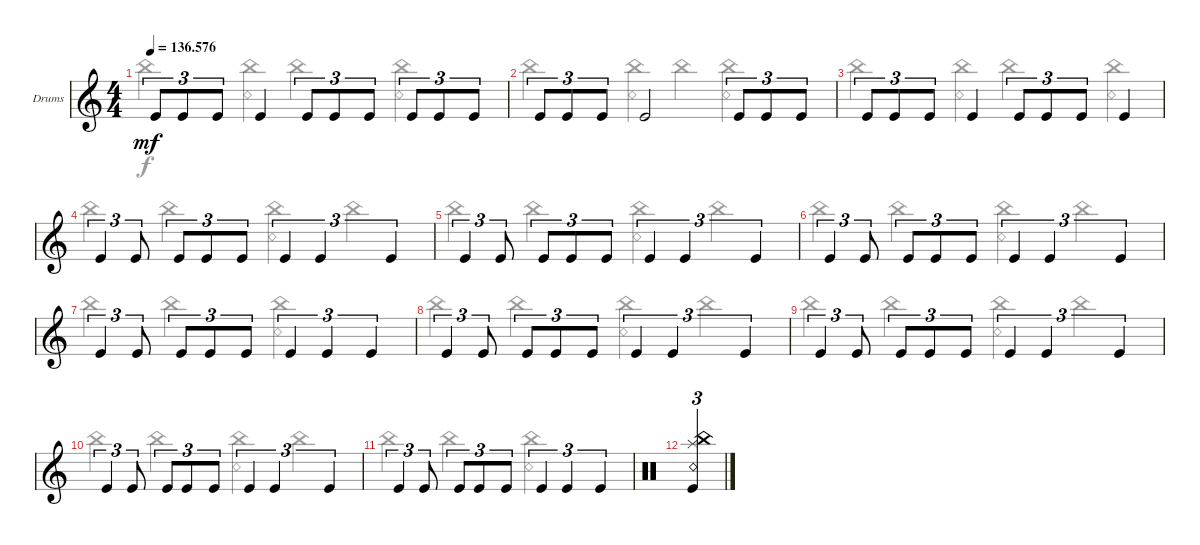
\bracketExtendMode groupsimilarinstruments
\firstSystemTrackNameOrientation horizontal
\otherSystemsTrackNameOrientation horizontal
\track ("Drumkit" "Drums") {instrument percussion}
\staff {score}
\articulation defaults
\voice
\ts (4 4)
\tempo
136.576
\accidentals auto
\clef g2
\ottava regular
\simile none
\ks c "Kick (hit)".8{tu (3 2) dy mf} "Kick (hit)".8{tu (3 2)} "Kick (hit)".8{tu (3 2)} "Kick (hit)".4 "Kick (hit)".8{tu (3 2)} "Kick (hit)".8{tu (3 2)} "Kick (hit)".8{tu (3 2)} "Kick (hit)".8{tu (3 2)} "Kick (hit)".8{tu (3 2)} "Kick (hit)".8{tu (3 2)}
|
"Kick (hit)".8{tu (3 2)} "Kick (hit)".8{tu (3 2)} "Kick (hit)".8{tu (3 2)} "Kick (hit)".2 "Kick (hit)".8{tu (3 2)} "Kick (hit)".8{tu (3 2)} "Kick (hit)".8{tu (3 2)} |
"Kick (hit)".8{tu (3 2)} "Kick (hit)".8{tu (3 2)} "Kick (hit)".8{tu (3 2)} "Kick (hit)".4 "Kick (hit)".8{tu (3 2)} "Kick (hit)".8{tu (3 2)} "Kick (hit)".8{tu (3 2)} "Kick (hit)".4 |
"Kick (hit)".4{tu (3 2)} "Kick (hit)".8{tu (3 2)} "Kick (hit)".8{tu (3 2)} "Kick (hit)".8{tu (3 2)} "Kick (hit)".8{tu (3 2)} "Kick (hit)".4{tu (3 2)} "Kick (hit)".4{tu (3 2)} "Kick (hit)".4{tu (3 2)} |
"Kick (hit)".4{tu (3 2)} "Kick (hit)".8{tu (3 2)} "Kick (hit)".8{tu (3 2)} "Kick (hit)".8{tu (3 2)} "Kick (hit)".8{tu (3 2)} "Kick (hit)".4{tu (3 2)} "Kick (hit)".4{tu (3 2)} "Kick (hit)".4{tu (3 2)} |
"Kick (hit)".4{tu (3 2)} "Kick (hit)".8{tu (3 2)} "Kick (hit)".8{tu (3 2)} "Kick (hit)".8{tu (3 2)} "Kick (hit)".8{tu (3 2)} "Kick (hit)".4{tu (3 2)} "Kick (hit)".4{tu (3 2)} "Kick (hit)".4{tu (3 2)} |
"Kick (hit)".4{tu (3 2)} "Kick (hit)".8{tu (3 2)} "Kick (hit)".8{tu (3 2)} "Kick (hit)".8{tu (3 2)} "Kick (hit)".8{tu (3 2)} "Kick (hit)".4{tu (3 2)} "Kick (hit)".4{tu (3 2)} "Kick (hit)".4{tu (3 2)} |
"Kick (hit)".4{tu (3 2)} "Kick (hit)".8{tu (3 2)} "Kick (hit)".8{tu (3 2)} "Kick (hit)".8{tu (3 2)} "Kick (hit)".8{tu (3 2)} "Kick (hit)".4{tu (3 2)} "Kick (hit)".4{tu (3 2)} "Kick (hit)".4{tu (3 2)} |
"Kick (hit)".4{tu (3 2)} "Kick (hit)".8{tu (3 2)} "Kick (hit)".8{tu (3 2)} "Kick (hit)".8{tu (3 2)} "Kick (hit)".8{tu (3 2)} "Kick (hit)".4{tu (3 2)} "Kick (hit)".4{tu (3 2)} "Kick (hit)".4{tu (3 2)} |
"Kick (hit)".4{tu (3 2)} "Kick (hit)".8{tu (3 2)} "Kick (hit)".8{tu (3 2)} "Kick (hit)".8{tu (3 2)} "Kick (hit)".8{tu (3 2)} "Kick (hit)".4{tu (3 2)} "Kick (hit)".4{tu (3 2)} "Kick (hit)".4{tu (3 2)} |
"Kick (hit)".4{tu (3 2)} "Kick (hit)".8{tu (3 2)} "Kick (hit)".8{tu (3 2)} "Kick (hit)".8{tu (3 2)} "Kick (hit)".8{tu (3 2)} "Kick (hit)".4{tu (3 2)} "Kick (hit)".4{tu (3 2)} "Kick (hit)".4{tu (3 2)} |
\clef neutral
("China (hit)" "Splash (hit)" "Kick (hit)" "Snare (rim shot)").4{tu (3 2)} |
|
|
|
\voice
\clef g2
\ottava regular
\simile none
\ks c
|
|
|
|
|
|
|
|
|
|
|
\clef neutral
|
|
|
|
\voice
\clef g2
\ottava regular
\simile none
\ks c "China (hit)".4{dy f}
("China (hit)" "Snare (rim shot)").4 "China (hit)".4 ("China (hit)" "Snare (rim shot)").4 |
"China (hit)".4 ("China (hit)" "Snare (rim shot)").4 "China (hit)".4 ("China (hit)" "Snare (rim shot)").4 |
"China (hit)".4 ("China (hit)" "Snare (rim shot)").4 "China (hit)".4 ("China (hit)" "Snare (rim shot)").4 |
"China (hit)".4 "China (hit)".4 ("China (hit)" "Snare (rim shot)").4 "China (hit)".4 |
"China (hit)".4 "China (hit)".4 ("China (hit)" "Snare (rim shot)").4 "China (hit)".4 |
"China (hit)".4 "China (hit)".4 ("China (hit)" "Snare (rim shot)").4 "China (hit)".4 |
"China (hit)".4 "China (hit)".4 ("China (hit)" "Snare (rim shot)").4 |
"China (hit)".4 "China (hit)".4 ("China (hit)" "Snare (rim shot)").4 "China (hit)".4 |
"China (hit)".4 "China (hit)".4 ("China (hit)" "Snare (rim shot)").4 "China (hit)".4 |
"China (hit)".4 "China (hit)".4 ("China (hit)" "Snare (rim shot)").4 "China (hit)".4 |
"China (hit)".4 "China (hit)".4 ("China (hit)" "Snare (rim shot)").4 |
\clef neutral
|
|
|
|
